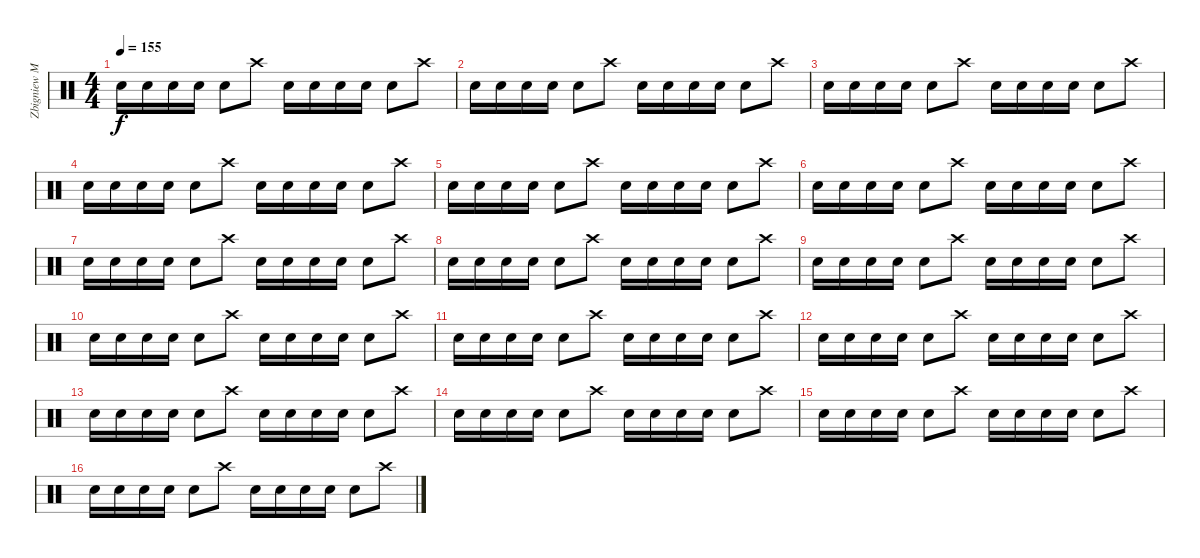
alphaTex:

\track ("Zbigniew Musiński " "Zbigniew M") {instrument percussion}
\staff {score}
\articulation defaults
\ts (4 4)
\tempo 155
\clef neutral
\ks c "Snare (hit) 2".16{dy f} "Snare (hit) 2".16 "Snare (hit) 2".16 "Snare (hit) 2".16 "Snare (hit) 2".8 "Crash high (hit)".8 "Snare (hit) 2".16 "Snare (hit) 2".16 "Snare (hit) 2".16 "Snare (hit) 2".16 "Snare (hit) 2".8 "Crash high (hit)".8
|
"Snare (hit) 2".16 "Snare (hit) 2".16 "Snare (hit) 2".16 "Snare (hit) 2".16 "Snare (hit) 2".8 "Crash high (hit)".8 "Snare (hit) 2".16 "Snare (hit) 2".16 "Snare (hit) 2".16 "Snare (hit) 2".16 "Snare (hit) 2".8 "Crash high (hit)".8 |
"Snare (hit) 2".16 "Snare (hit) 2".16 "Snare (hit) 2".16 "Snare (hit) 2".16 "Snare (hit) 2".8 "Crash high (hit)".8 "Snare (hit) 2".16 "Snare (hit) 2".16 "Snare (hit) 2".16 "Snare (hit) 2".16 "Snare (hit) 2".8 "Crash high (hit)".8 |
"Snare (hit) 2".16 "Snare (hit) 2".16 "Snare (hit) 2".16 "Snare (hit) 2".16 "Snare (hit) 2".8 "Crash high (hit)".8 "Snare (hit) 2".16 "Snare (hit) 2".16 "Snare (hit) 2".16 "Snare (hit) 2".16 "Snare (hit) 2".8 "Crash high (hit)".8 |
"Snare (hit) 2".16 "Snare (hit) 2".16 "Snare (hit) 2".16 "Snare (hit) 2".16 "Snare (hit) 2".8 "Crash high (hit)".8 "Snare (hit) 2".16 "Snare (hit) 2".16 "Snare (hit) 2".16 "Snare (hit) 2".16 "Snare (hit) 2".8 "Crash high (hit)".8 |
"Snare (hit) 2".16 "Snare (hit) 2".16 "Snare (hit) 2".16 "Snare (hit) 2".16 "Snare (hit) 2".8 "Crash high (hit)".8 "Snare (hit) 2".16 "Snare (hit) 2".16 "Snare (hit) 2".16 "Snare (hit) 2".16 "Snare (hit) 2".8 "Crash high (hit)".8 |
"Snare (hit) 2".16 "Snare (hit) 2".16 "Snare (hit) 2".16 "Snare (hit) 2".16 "Snare (hit) 2".8 "Crash high (hit)".8 "Snare (hit) 2".16 "Snare (hit) 2".16 "Snare (hit) 2".16 "Snare (hit) 2".16 "Snare (hit) 2".8 "Crash high (hit)".8 |
"Snare (hit) 2".16 "Snare (hit) 2".16 "Snare (hit) 2".16 "Snare (hit) 2".16 "Snare (hit) 2".8 "Crash high (hit)".8 "Snare (hit) 2".16 "Snare (hit) 2".16 "Snare (hit) 2".16 "Snare (hit) 2".16 "Snare (hit) 2".8 "Crash high (hit)".8 |
"Snare (hit) 2".16 "Snare (hit) 2".16 "Snare (hit) 2".16 "Snare (hit) 2".16 "Snare (hit) 2".8 "Crash high (hit)".8 "Snare (hit) 2".16 "Snare (hit) 2".16 "Snare (hit) 2".16 "Snare (hit) 2".16 "Snare (hit) 2".8 "Crash high (hit)".8 |
"Snare (hit) 2".16 "Snare (hit) 2".16 "Snare (hit) 2".16 "Snare (hit) 2".16 "Snare (hit) 2".8 "Crash high (hit)".8 "Snare (hit) 2".16 "Snare (hit) 2".16 "Snare (hit) 2".16 "Snare (hit) 2".16 "Snare (hit) 2".8 "Crash high (hit)".8 |
"Snare (hit) 2".16 "Snare (hit) 2".16 "Snare (hit) 2".16 "Snare (hit) 2".16 "Snare (hit) 2".8 "Crash high (hit)".8 "Snare (hit) 2".16 "Snare (hit) 2".16 "Snare (hit) 2".16 "Snare (hit) 2".16 "Snare (hit) 2".8 "Crash high (hit)".8 |
"Snare (hit) 2".16 "Snare (hit) 2".16 "Snare (hit) 2".16 "Snare (hit) 2".16 "Snare (hit) 2".8 "Crash high (hit)".8 "Snare (hit) 2".16 "Snare (hit) 2".16 "Snare (hit) 2".16 "Snare (hit) 2".16 "Snare (hit) 2".8 "Crash high (hit)".8 |
"Snare (hit) 2".16 "Snare (hit) 2".16 "Snare (hit) 2".16 "Snare (hit) 2".16 "Snare (hit) 2".8 "Crash high (hit)".8 "Snare (hit) 2".16 "Snare (hit) 2".16 "Snare (hit) 2".16 "Snare (hit) 2".16 "Snare (hit) 2".8 "Crash high (hit)".8 |
"Snare (hit) 2".16 "Snare (hit) 2".16 "Snare (hit) 2".16 "Snare (hit) 2".16 "Snare (hit) 2".8 "Crash high (hit)".8 "Snare (hit) 2".16 "Snare (hit) 2".16 "Snare (hit) 2".16 "Snare (hit) 2".16 "Snare (hit) 2".8 "Crash high (hit)".8 |
"Snare (hit) 2".16 "Snare (hit) 2".16 "Snare (hit) 2".16 "Snare (hit) 2".16 "Snare (hit) 2".8 "Crash high (hit)".8 "Snare (hit) 2".16 "Snare (hit) 2".16 "Snare (hit) 2".16 "Snare (hit) 2".16 "Snare (hit) 2".8 "Crash high (hit)".8 |
"Snare (hit) 2".16 "Snare (hit) 2".16 "Snare (hit) 2".16 "Snare (hit) 2".16 "Snare (hit) 2".8 "Crash high (hit)".8 "Snare (hit) 2".16 "Snare (hit) 2".16 "Snare (hit) 2".16 "Snare (hit) 2".16 "Snare (hit) 2".8 "Crash high (hit)".8
